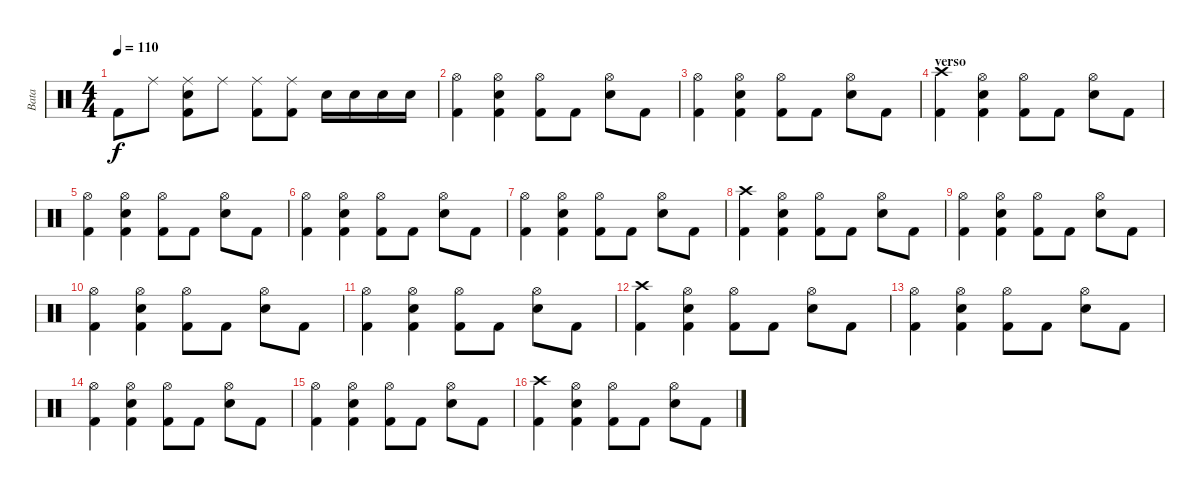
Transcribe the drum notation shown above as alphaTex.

\track ("Bata" "Bata") {instrument percussion}
\staff {score}
\articulation defaults
\ts (4 4)
\tempo 110
\clef neutral
\ks c "Kick (hit) 2".8{dy f} "Ride (middle)".8
("Kick (hit) 2" "Ride (middle)" "Snare (hit) 2").8 "Ride (middle)".8 ("Kick (hit) 2" "Ride (middle)").8 ("Kick (hit) 2" "Ride (middle)").8 "Snare (hit) 2".16 "Snare (hit) 2".16 "Snare (hit) 2".16 "Snare (hit) 2".16 |
("Kick (hit) 2" "Hi-Hat (open)").4 ("Kick (hit) 2" "Snare (hit) 2" "Hi-Hat (open)").4 ("Kick (hit) 2" "Hi-Hat (open)").8 "Kick (hit) 2".8 ("Snare (hit) 2" "Hi-Hat (open)").8 "Kick (hit) 2".8 |
("Kick (hit) 2" "Hi-Hat (open)").4 ("Kick (hit) 2" "Snare (hit) 2" "Hi-Hat (open)").4 ("Kick (hit) 2" "Hi-Hat (open)").8 "Kick (hit) 2".8 ("Snare (hit) 2" "Hi-Hat (open)").8 "Kick (hit) 2".8 |
\section ("" "verso")
("Kick (hit) 2" "Crash high (hit)").4 ("Kick (hit) 2" "Snare (hit) 2" "Hi-Hat (open)").4 ("Kick (hit) 2" "Hi-Hat (open)").8 "Kick (hit) 2".8 ("Snare (hit) 2" "Hi-Hat (open)").8 "Kick (hit) 2".8 |
("Kick (hit) 2" "Hi-Hat (open)").4 ("Kick (hit) 2" "Snare (hit) 2" "Hi-Hat (open)").4 ("Kick (hit) 2" "Hi-Hat (open)").8 "Kick (hit) 2".8 ("Snare (hit) 2" "Hi-Hat (open)").8 "Kick (hit) 2".8 |
("Kick (hit) 2" "Hi-Hat (open)").4 ("Kick (hit) 2" "Snare (hit) 2" "Hi-Hat (open)").4 ("Kick (hit) 2" "Hi-Hat (open)").8 "Kick (hit) 2".8 ("Snare (hit) 2" "Hi-Hat (open)").8 "Kick (hit) 2".8 |
("Kick (hit) 2" "Hi-Hat (open)").4 ("Kick (hit) 2" "Snare (hit) 2" "Hi-Hat (open)").4 ("Kick (hit) 2" "Hi-Hat (open)").8 "Kick (hit) 2".8 ("Snare (hit) 2" "Hi-Hat (open)").8 "Kick (hit) 2".8 |
("Kick (hit) 2" "Crash high (hit)").4 ("Kick (hit) 2" "Snare (hit) 2" "Hi-Hat (open)").4 ("Kick (hit) 2" "Hi-Hat (open)").8 "Kick (hit) 2".8 ("Snare (hit) 2" "Hi-Hat (open)").8 "Kick (hit) 2".8 |
("Kick (hit) 2" "Hi-Hat (open)").4 ("Kick (hit) 2" "Snare (hit) 2" "Hi-Hat (open)").4 ("Kick (hit) 2" "Hi-Hat (open)").8 "Kick (hit) 2".8 ("Snare (hit) 2" "Hi-Hat (open)").8 "Kick (hit) 2".8 |
("Kick (hit) 2" "Hi-Hat (open)").4 ("Kick (hit) 2" "Snare (hit) 2" "Hi-Hat (open)").4 ("Kick (hit) 2" "Hi-Hat (open)").8 "Kick (hit) 2".8 ("Snare (hit) 2" "Hi-Hat (open)").8 "Kick (hit) 2".8 |
("Kick (hit) 2" "Hi-Hat (open)").4 ("Kick (hit) 2" "Snare (hit) 2" "Hi-Hat (open)").4 ("Kick (hit) 2" "Hi-Hat (open)").8 "Kick (hit) 2".8 ("Snare (hit) 2" "Hi-Hat (open)").8 "Kick (hit) 2".8 |
("Kick (hit) 2" "Crash high (hit)").4 ("Kick (hit) 2" "Snare (hit) 2" "Hi-Hat (open)").4 ("Kick (hit) 2" "Hi-Hat (open)").8 "Kick (hit) 2".8 ("Snare (hit) 2" "Hi-Hat (open)").8 "Kick (hit) 2".8 |
("Kick (hit) 2" "Hi-Hat (open)").4 ("Kick (hit) 2" "Snare (hit) 2" "Hi-Hat (open)").4 ("Kick (hit) 2" "Hi-Hat (open)").8 "Kick (hit) 2".8 ("Snare (hit) 2" "Hi-Hat (open)").8 "Kick (hit) 2".8 |
("Kick (hit) 2" "Hi-Hat (open)").4 ("Kick (hit) 2" "Snare (hit) 2" "Hi-Hat (open)").4 ("Kick (hit) 2" "Hi-Hat (open)").8 "Kick (hit) 2".8 ("Snare (hit) 2" "Hi-Hat (open)").8 "Kick (hit) 2".8 |
("Kick (hit) 2" "Hi-Hat (open)").4 ("Kick (hit) 2" "Snare (hit) 2" "Hi-Hat (open)").4 ("Kick (hit) 2" "Hi-Hat (open)").8 "Kick (hit) 2".8 ("Snare (hit) 2" "Hi-Hat (open)").8 "Kick (hit) 2".8 |
("Kick (hit) 2" "Crash high (hit)").4 ("Kick (hit) 2" "Snare (hit) 2" "Hi-Hat (open)").4 ("Kick (hit) 2" "Hi-Hat (open)").8 "Kick (hit) 2".8 ("Snare (hit) 2" "Hi-Hat (open)").8 "Kick (hit) 2".8
